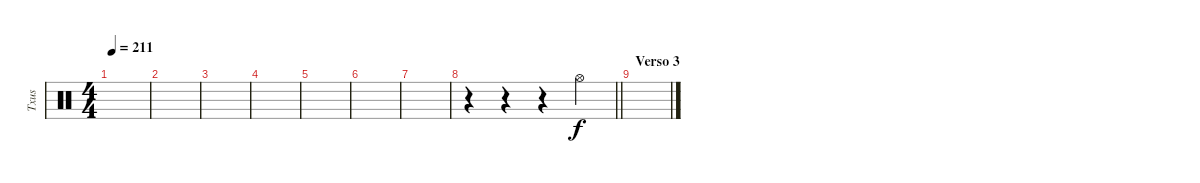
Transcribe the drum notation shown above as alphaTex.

\track ("Txus" "Txus") {instrument percussion}
\staff {score}
\articulation defaults
\ts (4 4)
\tempo 211
\clef neutral
\ks c
|
|
|
|
|
|
|
\barLineRight lightlight
r.4 r.4 r.4 "Hi-Hat (open)".4 |
\section ("" "Verso 3")
